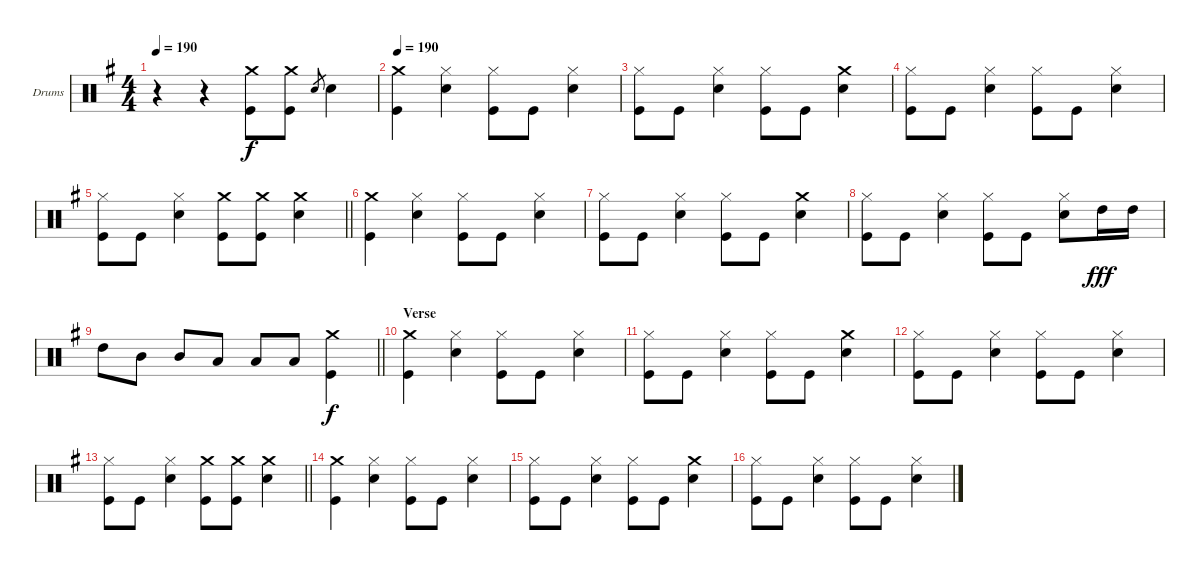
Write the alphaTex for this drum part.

\bracketExtendMode groupsimilarinstruments
\firstSystemTrackNameOrientation horizontal
\otherSystemsTrackNameOrientation horizontal
\track ("Drums" "Drums") {instrument percussion}
\staff {score}
\articulation defaults
\ts (4 4)
\tempo 190
\clef neutral
\ks g
r.4{dy f} r.4 ("Crash medium (hit)" "Kick (hit)").8 ("Crash medium (hit)" "Kick (hit)").8 "Snare (hit) 2".8{gr} "Snare (hit) 2".4 |
\tempo 190
("Crash medium (hit)" "Kick (hit)").4 ("Snare (hit) 2" "Hi-Hat (closed)").4 ("Kick (hit)" "Hi-Hat (closed)").8 "Kick (hit)".8 ("Snare (hit) 2" "Hi-Hat (closed)").4 |
("Kick (hit)" "Hi-Hat (closed)").8 "Kick (hit)".8 ("Snare (hit) 2" "Hi-Hat (closed)").4 ("Kick (hit)" "Hi-Hat (closed)").8 "Kick (hit)".8 ("Crash medium (hit)" "Snare (hit) 2").4 |
("Kick (hit)" "Hi-Hat (closed)").8 "Kick (hit)".8 ("Snare (hit) 2" "Hi-Hat (closed)").4 ("Kick (hit)" "Hi-Hat (closed)").8 "Kick (hit)".8 ("Snare (hit) 2" "Hi-Hat (closed)").4 |
\barLineRight lightlight
("Kick (hit)" "Hi-Hat (closed)").8 "Kick (hit)".8 ("Snare (hit) 2" "Hi-Hat (closed)").4 ("Crash medium (hit)" "Kick (hit)").8 ("Crash medium (hit)" "Kick (hit)").8 ("Crash medium (hit)" "Snare (hit) 2").4 |
("Crash medium (hit)" "Kick (hit)").4 ("Snare (hit) 2" "Hi-Hat (closed)").4 ("Kick (hit)" "Hi-Hat (closed)").8 "Kick (hit)".8 ("Snare (hit) 2" "Hi-Hat (closed)").4 |
("Kick (hit)" "Hi-Hat (closed)").8 "Kick (hit)".8 ("Snare (hit) 2" "Hi-Hat (closed)").4 ("Kick (hit)" "Hi-Hat (closed)").8 "Kick (hit)".8 ("Crash medium (hit)" "Snare (hit) 2").4 |
("Kick (hit)" "Hi-Hat (closed)").8 "Kick (hit)".8 ("Snare (hit) 2" "Hi-Hat (closed)").4 ("Kick (hit)" "Hi-Hat (closed)").8 "Kick (hit)".8 ("Snare (hit) 2" "Hi-Hat (closed)").8 "High Tom (hit)".16{dy fff} "High Tom (hit)".16 |
\barLineRight lightlight "High Tom (hit)".8 "Mid Tom (hit)".8 "Mid Tom (hit)".8 "Low Tom (hit)".8 "Low Tom (hit)".8 "Low Tom (hit)".8
("Crash medium (hit)" "Kick (hit)").4{dy f} |
\section ("" "Verse")
("Crash medium (hit)" "Kick (hit)").4 ("Snare (hit) 2" "Hi-Hat (closed)").4 ("Kick (hit)" "Hi-Hat (closed)").8 "Kick (hit)".8 ("Snare (hit) 2" "Hi-Hat (closed)").4 |
("Kick (hit)" "Hi-Hat (closed)").8 "Kick (hit)".8 ("Snare (hit) 2" "Hi-Hat (closed)").4 ("Kick (hit)" "Hi-Hat (closed)").8 "Kick (hit)".8 ("Crash medium (hit)" "Snare (hit) 2").4 |
("Kick (hit)" "Hi-Hat (closed)").8 "Kick (hit)".8 ("Snare (hit) 2" "Hi-Hat (closed)").4 ("Kick (hit)" "Hi-Hat (closed)").8 "Kick (hit)".8 ("Snare (hit) 2" "Hi-Hat (closed)").4 |
\barLineRight lightlight
("Kick (hit)" "Hi-Hat (closed)").8 "Kick (hit)".8 ("Snare (hit) 2" "Hi-Hat (closed)").4 ("Crash medium (hit)" "Kick (hit)").8 ("Crash medium (hit)" "Kick (hit)").8 ("Crash medium (hit)" "Snare (hit) 2").4 |
("Crash medium (hit)" "Kick (hit)").4 ("Snare (hit) 2" "Hi-Hat (closed)").4 ("Kick (hit)" "Hi-Hat (closed)").8 "Kick (hit)".8 ("Snare (hit) 2" "Hi-Hat (closed)").4 |
("Kick (hit)" "Hi-Hat (closed)").8 "Kick (hit)".8 ("Snare (hit) 2" "Hi-Hat (closed)").4 ("Kick (hit)" "Hi-Hat (closed)").8 "Kick (hit)".8 ("Crash medium (hit)" "Snare (hit) 2").4 |
("Kick (hit)" "Hi-Hat (closed)").8 "Kick (hit)".8 ("Snare (hit) 2" "Hi-Hat (closed)").4 ("Kick (hit)" "Hi-Hat (closed)").8 "Kick (hit)".8 ("Snare (hit) 2" "Hi-Hat (closed)").4
